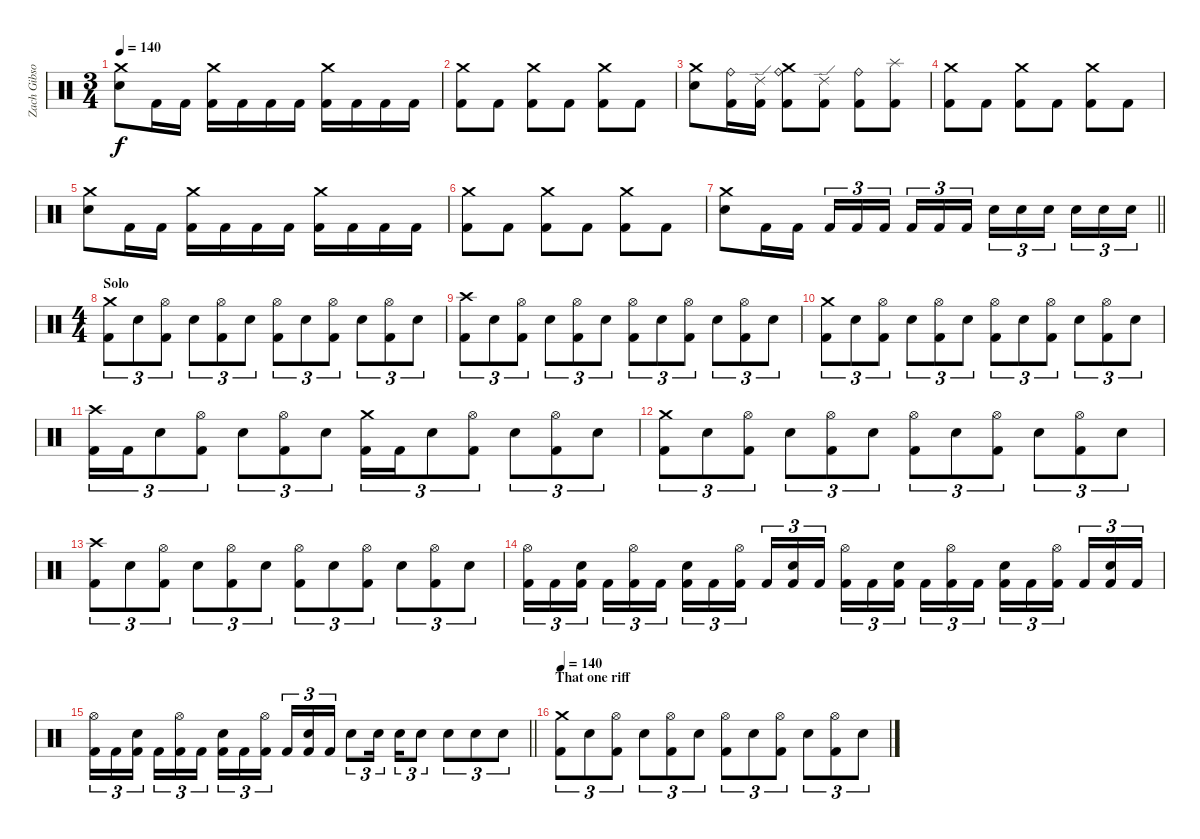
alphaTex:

\track ("Zach Gibson" "Zach Gibso") {instrument percussion}
\staff {score}
\articulation defaults
\ts (3 4)
\tempo 140
\clef neutral
\ks c
("Crash medium (hit)" "Snare (hit) 2").8{dy f} "Kick (hit) 2".16 "Kick (hit) 2".16 ("Crash medium (hit)" "Kick (hit) 2").16 "Kick (hit) 2".16 "Kick (hit) 2".16 "Kick (hit) 2".16 ("Crash medium (hit)" "Kick (hit) 2").16 "Kick (hit) 2".16 "Kick (hit) 2".16 "Kick (hit) 2".16 |
("Crash medium (hit)" "Kick (hit) 2").8 "Kick (hit) 2".8 ("Crash medium (hit)" "Kick (hit) 2").8 "Kick (hit) 2".8 ("Crash medium (hit)" "Kick (hit) 2").8 "Kick (hit) 2".8 |
("Crash medium (hit)" "Snare (hit) 2").8 ("Ride (bell)" "Kick (hit) 2").16 ("Ride (edge) 2" "Kick (hit) 2").16 ("Crash medium (hit)" "Ride (bell)" "Kick (hit) 2").8 ("Ride (edge) 2" "Kick (hit) 2").8 ("Ride (bell)" "Kick (hit) 2").8 ("Splash (hit)" "Kick (hit) 2").8 |
("Crash medium (hit)" "Kick (hit) 2").8 "Kick (hit) 2".8 ("Crash medium (hit)" "Kick (hit) 2").8 "Kick (hit) 2".8 ("Crash medium (hit)" "Kick (hit) 2").8 "Kick (hit) 2".8 |
("Crash medium (hit)" "Snare (hit) 2").8 "Kick (hit) 2".16 "Kick (hit) 2".16 ("Crash medium (hit)" "Kick (hit) 2").16 "Kick (hit) 2".16 "Kick (hit) 2".16 "Kick (hit) 2".16 ("Crash medium (hit)" "Kick (hit) 2").16 "Kick (hit) 2".16 "Kick (hit) 2".16 "Kick (hit) 2".16 |
("Crash medium (hit)" "Kick (hit) 2").8 "Kick (hit) 2".8 ("Crash medium (hit)" "Kick (hit) 2").8 "Kick (hit) 2".8 ("Crash medium (hit)" "Kick (hit) 2").8 "Kick (hit) 2".8 |
\barLineRight lightlight
("Crash medium (hit)" "Snare (hit) 2").8 "Kick (hit) 2".16 "Kick (hit) 2".16 "Kick (hit) 2".16{tu (3 2)} "Kick (hit) 2".16{tu (3 2)} "Kick (hit) 2".16{tu (3 2) beam splitsecondary} "Kick (hit) 2".16{tu (3 2)} "Kick (hit) 2".16{tu (3 2)} "Kick (hit) 2".16{tu (3 2)} "Snare (hit) 2".16{tu (3 2)} "Snare (hit) 2".16{tu (3 2)} "Snare (hit) 2".16{tu (3 2) beam splitsecondary} "Snare (hit) 2".16{tu (3 2)} "Snare (hit) 2".16{tu (3 2)} "Snare (hit) 2".16{tu (3 2)} |
\ts (4 4)
\section ("" "Solo")
("Crash medium (hit)" "Kick (hit) 2").8{tu (3 2)} "Snare (hit) 2".8{tu (3 2)} ("Hi-Hat (open)" "Kick (hit) 2").8{tu (3 2)} "Snare (hit) 2".8{tu (3 2)} ("Hi-Hat (open)" "Kick (hit) 2").8{tu (3 2)} "Snare (hit) 2".8{tu (3 2)} ("Hi-Hat (open)" "Kick (hit) 2").8{tu (3 2)} "Snare (hit) 2".8{tu (3 2)} ("Hi-Hat (open)" "Kick (hit) 2").8{tu (3 2)} "Snare (hit) 2".8{tu (3 2)} ("Hi-Hat (open)" "Kick (hit) 2").8{tu (3 2)} "Snare (hit) 2".8{tu (3 2)} |
("Crash high (hit)" "Kick (hit) 2").8{tu (3 2)} "Snare (hit) 2".8{tu (3 2)} ("Hi-Hat (open)" "Kick (hit) 2").8{tu (3 2)} "Snare (hit) 2".8{tu (3 2)} ("Hi-Hat (open)" "Kick (hit) 2").8{tu (3 2)} "Snare (hit) 2".8{tu (3 2)} ("Hi-Hat (open)" "Kick (hit) 2").8{tu (3 2)} "Snare (hit) 2".8{tu (3 2)} ("Hi-Hat (open)" "Kick (hit) 2").8{tu (3 2)} "Snare (hit) 2".8{tu (3 2)} ("Hi-Hat (open)" "Kick (hit) 2").8{tu (3 2)} "Snare (hit) 2".8{tu (3 2)} |
("Crash medium (hit)" "Kick (hit) 2").8{tu (3 2)} "Snare (hit) 2".8{tu (3 2)} ("Hi-Hat (open)" "Kick (hit) 2").8{tu (3 2)} "Snare (hit) 2".8{tu (3 2)} ("Hi-Hat (open)" "Kick (hit) 2").8{tu (3 2)} "Snare (hit) 2".8{tu (3 2)} ("Hi-Hat (open)" "Kick (hit) 2").8{tu (3 2)} "Snare (hit) 2".8{tu (3 2)} ("Hi-Hat (open)" "Kick (hit) 2").8{tu (3 2)} "Snare (hit) 2".8{tu (3 2)} ("Hi-Hat (open)" "Kick (hit) 2").8{tu (3 2)} "Snare (hit) 2".8{tu (3 2)} |
("Crash high (hit)" "Kick (hit) 2").16{tu (3 2)} "Kick (hit) 2".16{tu (3 2)} "Snare (hit) 2".8{tu (3 2)} ("Hi-Hat (open)" "Kick (hit) 2").8{tu (3 2)} "Snare (hit) 2".8{tu (3 2)} ("Hi-Hat (open)" "Kick (hit) 2").8{tu (3 2)} "Snare (hit) 2".8{tu (3 2)} ("Crash medium (hit)" "Kick (hit) 2").16{tu (3 2)} "Kick (hit) 2".16{tu (3 2)} "Snare (hit) 2".8{tu (3 2)} ("Hi-Hat (open)" "Kick (hit) 2").8{tu (3 2)} "Snare (hit) 2".8{tu (3 2)} ("Hi-Hat (open)" "Kick (hit) 2").8{tu (3 2)} "Snare (hit) 2".8{tu (3 2)} |
("Crash medium (hit)" "Kick (hit) 2").8{tu (3 2)} "Snare (hit) 2".8{tu (3 2)} ("Hi-Hat (open)" "Kick (hit) 2").8{tu (3 2)} "Snare (hit) 2".8{tu (3 2)} ("Hi-Hat (open)" "Kick (hit) 2").8{tu (3 2)} "Snare (hit) 2".8{tu (3 2)} ("Hi-Hat (open)" "Kick (hit) 2").8{tu (3 2)} "Snare (hit) 2".8{tu (3 2)} ("Hi-Hat (open)" "Kick (hit) 2").8{tu (3 2)} "Snare (hit) 2".8{tu (3 2)} ("Hi-Hat (open)" "Kick (hit) 2").8{tu (3 2)} "Snare (hit) 2".8{tu (3 2)} |
("Crash high (hit)" "Kick (hit) 2").8{tu (3 2)} "Snare (hit) 2".8{tu (3 2)} ("Hi-Hat (open)" "Kick (hit) 2").8{tu (3 2)} "Snare (hit) 2".8{tu (3 2)} ("Hi-Hat (open)" "Kick (hit) 2").8{tu (3 2)} "Snare (hit) 2".8{tu (3 2)} ("Hi-Hat (open)" "Kick (hit) 2").8{tu (3 2)} "Snare (hit) 2".8{tu (3 2)} ("Hi-Hat (open)" "Kick (hit) 2").8{tu (3 2)} "Snare (hit) 2".8{tu (3 2)} ("Hi-Hat (open)" "Kick (hit) 2").8{tu (3 2)} "Snare (hit) 2".8{tu (3 2)} |
("Hi-Hat (open)" "Kick (hit) 2").16{tu (3 2)} "Kick (hit) 2".16{tu (3 2)} ("Snare (hit) 2" "Kick (hit) 2").16{tu (3 2) beam splitsecondary} "Kick (hit) 2".16{tu (3 2)} ("Hi-Hat (open)" "Kick (hit) 2").16{tu (3 2)} "Kick (hit) 2".16{tu (3 2)} ("Snare (hit) 2" "Kick (hit) 2").16{tu (3 2)} "Kick (hit) 2".16{tu (3 2)} ("Hi-Hat (open)" "Kick (hit) 2").16{tu (3 2) beam splitsecondary} "Kick (hit) 2".16{tu (3 2)} ("Snare (hit) 2" "Kick (hit) 2").16{tu (3 2)} "Kick (hit) 2".16{tu (3 2)} ("Hi-Hat (open)" "Kick (hit) 2").16{tu (3 2)} "Kick (hit) 2".16{tu (3 2)} ("Snare (hit) 2" "Kick (hit) 2").16{tu (3 2) beam splitsecondary} "Kick (hit) 2".16{tu (3 2)} ("Hi-Hat (open)" "Kick (hit) 2").16{tu (3 2)} "Kick (hit) 2".16{tu (3 2)} ("Snare (hit) 2" "Kick (hit) 2").16{tu (3 2)} "Kick (hit) 2".16{tu (3 2)} ("Hi-Hat (open)" "Kick (hit) 2").16{tu (3 2) beam splitsecondary} "Kick (hit) 2".16{tu (3 2)} ("Snare (hit) 2" "Kick (hit) 2").16{tu (3 2)} "Kick (hit) 2".16{tu (3 2)} |
\barLineRight lightlight
("Hi-Hat (open)" "Kick (hit) 2").16{tu (3 2)} "Kick (hit) 2".16{tu (3 2)} ("Snare (hit) 2" "Kick (hit) 2").16{tu (3 2) beam splitsecondary} "Kick (hit) 2".16{tu (3 2)} ("Hi-Hat (open)" "Kick (hit) 2").16{tu (3 2)} "Kick (hit) 2".16{tu (3 2)} ("Snare (hit) 2" "Kick (hit) 2").16{tu (3 2)} "Kick (hit) 2".16{tu (3 2)} ("Hi-Hat (open)" "Kick (hit) 2").16{tu (3 2) beam splitsecondary} "Kick (hit) 2".16{tu (3 2)} ("Snare (hit) 2" "Kick (hit) 2").16{tu (3 2)} "Kick (hit) 2".16{tu (3 2)} "Snare (hit) 2".8{tu (3 2)} "Snare (hit) 2".16{tu (3 2) beam splitsecondary} "Snare (hit) 2".16{tu (3 2)} "Snare (hit) 2".8{tu (3 2)} "Snare (hit) 2".8{tu (3 2)} "Snare (hit) 2".8{tu (3 2)} "Snare (hit) 2".8{tu (3 2)} |
\section ("" "That one riff")
\tempo 140
("Crash medium (hit)" "Kick (hit) 2").8{tu (3 2)} "Snare (hit) 2".8{tu (3 2)} ("Hi-Hat (open)" "Kick (hit) 2").8{tu (3 2)} "Snare (hit) 2".8{tu (3 2)} ("Hi-Hat (open)" "Kick (hit) 2").8{tu (3 2)} "Snare (hit) 2".8{tu (3 2)} ("Hi-Hat (open)" "Kick (hit) 2").8{tu (3 2)} "Snare (hit) 2".8{tu (3 2)} ("Hi-Hat (open)" "Kick (hit) 2").8{tu (3 2)} "Snare (hit) 2".8{tu (3 2)} ("Hi-Hat (open)" "Kick (hit) 2").8{tu (3 2)} "Snare (hit) 2".8{tu (3 2)}
